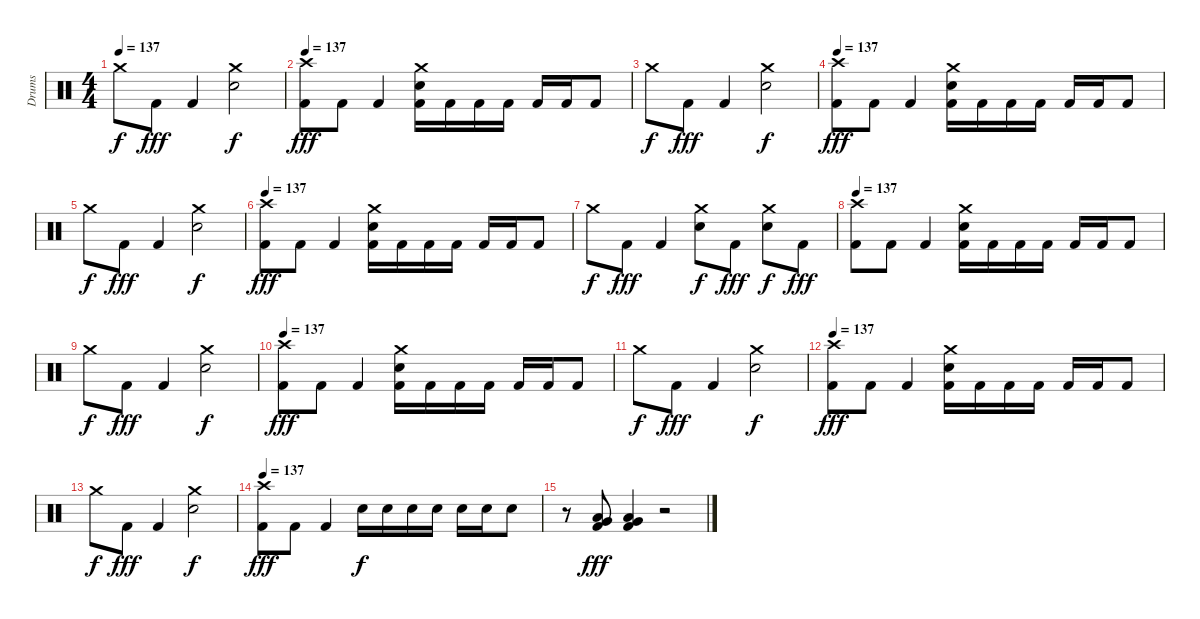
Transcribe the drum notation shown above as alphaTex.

\track ("Drums" "Drums") {instrument percussion}
\staff {score}
\articulation defaults
\ts (4 4)
\tempo 137
\clef neutral
\ks c "Crash medium (hit)".8{dy f} "Kick (hit) 2".8{dy fff} "Kick (hit) 2".4
("Crash medium (hit)" "Snare (hit) 2").2{dy f} |
\tempo 137
("Crash high (hit)" "Kick (hit) 2").8{dy fff} "Kick (hit) 2".8 "Kick (hit) 2".4 ("Crash medium (hit)" "Snare (hit) 2" "Kick (hit) 2").16 "Kick (hit) 2".16 "Kick (hit) 2".16 "Kick (hit) 2".16 "Kick (hit) 2".16 "Kick (hit) 2".16 "Kick (hit) 2".8 |
"Crash medium (hit)".8{dy f} "Kick (hit) 2".8{dy fff} "Kick (hit) 2".4 ("Crash medium (hit)" "Snare (hit) 2").2{dy f} |
\tempo 137
("Crash high (hit)" "Kick (hit) 2").8{dy fff} "Kick (hit) 2".8 "Kick (hit) 2".4 ("Crash medium (hit)" "Snare (hit) 2" "Kick (hit) 2").16 "Kick (hit) 2".16 "Kick (hit) 2".16 "Kick (hit) 2".16 "Kick (hit) 2".16 "Kick (hit) 2".16 "Kick (hit) 2".8 |
"Crash medium (hit)".8{dy f} "Kick (hit) 2".8{dy fff} "Kick (hit) 2".4 ("Crash medium (hit)" "Snare (hit) 2").2{dy f} |
\tempo 137
("Crash high (hit)" "Kick (hit) 2").8{dy fff} "Kick (hit) 2".8 "Kick (hit) 2".4 ("Crash medium (hit)" "Snare (hit) 2" "Kick (hit) 2").16 "Kick (hit) 2".16 "Kick (hit) 2".16 "Kick (hit) 2".16 "Kick (hit) 2".16 "Kick (hit) 2".16 "Kick (hit) 2".8 |
"Crash medium (hit)".8{dy f} "Kick (hit) 2".8{dy fff} "Kick (hit) 2".4 ("Crash medium (hit)" "Snare (hit) 2").8{dy f} "Kick (hit) 2".8{dy fff} ("Crash medium (hit)" "Snare (hit) 2").8{dy f} "Kick (hit) 2".8{dy fff} |
\tempo 137
("Crash high (hit)" "Kick (hit) 2").8 "Kick (hit) 2".8 "Kick (hit) 2".4 ("Crash medium (hit)" "Snare (hit) 2" "Kick (hit) 2").16 "Kick (hit) 2".16 "Kick (hit) 2".16 "Kick (hit) 2".16 "Kick (hit) 2".16 "Kick (hit) 2".16 "Kick (hit) 2".8 |
"Crash medium (hit)".8{dy f} "Kick (hit) 2".8{dy fff} "Kick (hit) 2".4 ("Crash medium (hit)" "Snare (hit) 2").2{dy f} |
\tempo 137
("Crash high (hit)" "Kick (hit) 2").8{dy fff} "Kick (hit) 2".8 "Kick (hit) 2".4 ("Crash medium (hit)" "Snare (hit) 2" "Kick (hit) 2").16 "Kick (hit) 2".16 "Kick (hit) 2".16 "Kick (hit) 2".16 "Kick (hit) 2".16 "Kick (hit) 2".16 "Kick (hit) 2".8 |
"Crash medium (hit)".8{dy f} "Kick (hit) 2".8{dy fff} "Kick (hit) 2".4 ("Crash medium (hit)" "Snare (hit) 2").2{dy f} |
\tempo 137
("Crash high (hit)" "Kick (hit) 2").8{dy fff} "Kick (hit) 2".8 "Kick (hit) 2".4 ("Crash medium (hit)" "Snare (hit) 2" "Kick (hit) 2").16 "Kick (hit) 2".16 "Kick (hit) 2".16 "Kick (hit) 2".16 "Kick (hit) 2".16 "Kick (hit) 2".16 "Kick (hit) 2".8 |
"Crash medium (hit)".8{dy f} "Kick (hit) 2".8{dy fff} "Kick (hit) 2".4 ("Crash medium (hit)" "Snare (hit) 2").2{dy f} |
\tempo 137
("Crash high (hit)" "Kick (hit) 2").8{dy fff} "Kick (hit) 2".8 "Kick (hit) 2".4 "Snare (hit) 2".16{dy f} "Snare (hit) 2".16 "Snare (hit) 2".16 "Snare (hit) 2".16 "Snare (hit) 2".16 "Snare (hit) 2".16 "Snare (hit) 2".8 |
r.8 ("Very Low Tom (hit)" "Low Floor Tom (hit)" "Kick (hit) 2").8{dy fff} ("Very Low Tom (hit)" "Low Floor Tom (hit)" "Kick (hit) 2").4 r.2
